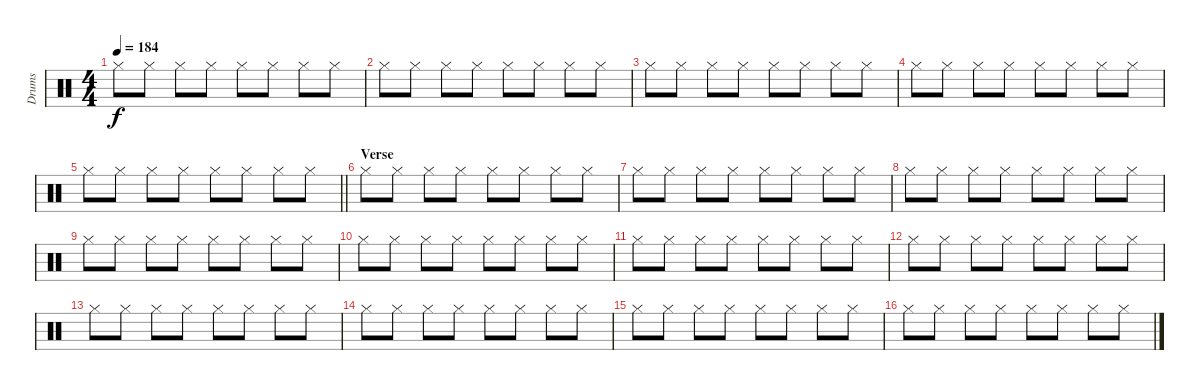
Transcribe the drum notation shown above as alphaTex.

\track ("Drums" "Drums") {instrument percussion}
\staff {score}
\articulation defaults
\ts (4 4)
\tempo 184
\clef neutral
\ks c "Hi-Hat (closed)".8{dy f} "Hi-Hat (closed)".8 "Hi-Hat (closed)".8 "Hi-Hat (closed)".8 "Hi-Hat (closed)".8 "Hi-Hat (closed)".8 "Hi-Hat (closed)".8 "Hi-Hat (closed)".8
|
"Hi-Hat (closed)".8 "Hi-Hat (closed)".8 "Hi-Hat (closed)".8 "Hi-Hat (closed)".8 "Hi-Hat (closed)".8 "Hi-Hat (closed)".8 "Hi-Hat (closed)".8 "Hi-Hat (closed)".8 |
"Hi-Hat (closed)".8 "Hi-Hat (closed)".8 "Hi-Hat (closed)".8 "Hi-Hat (closed)".8 "Hi-Hat (closed)".8 "Hi-Hat (closed)".8 "Hi-Hat (closed)".8 "Hi-Hat (closed)".8 |
"Hi-Hat (closed)".8 "Hi-Hat (closed)".8 "Hi-Hat (closed)".8 "Hi-Hat (closed)".8 "Hi-Hat (closed)".8 "Hi-Hat (closed)".8 "Hi-Hat (closed)".8 "Hi-Hat (closed)".8 |
\barLineRight lightlight "Hi-Hat (closed)".8 "Hi-Hat (closed)".8 "Hi-Hat (closed)".8 "Hi-Hat (closed)".8 "Hi-Hat (closed)".8 "Hi-Hat (closed)".8 "Hi-Hat (closed)".8 "Hi-Hat (closed)".8
|
\section ("" "Verse")
"Hi-Hat (closed)".8 "Hi-Hat (closed)".8 "Hi-Hat (closed)".8 "Hi-Hat (closed)".8 "Hi-Hat (closed)".8 "Hi-Hat (closed)".8 "Hi-Hat (closed)".8 "Hi-Hat (closed)".8 |
"Hi-Hat (closed)".8 "Hi-Hat (closed)".8 "Hi-Hat (closed)".8 "Hi-Hat (closed)".8 "Hi-Hat (closed)".8 "Hi-Hat (closed)".8 "Hi-Hat (closed)".8 "Hi-Hat (closed)".8 |
"Hi-Hat (closed)".8 "Hi-Hat (closed)".8 "Hi-Hat (closed)".8 "Hi-Hat (closed)".8 "Hi-Hat (closed)".8 "Hi-Hat (closed)".8 "Hi-Hat (closed)".8 "Hi-Hat (closed)".8 |
"Hi-Hat (closed)".8 "Hi-Hat (closed)".8 "Hi-Hat (closed)".8 "Hi-Hat (closed)".8 "Hi-Hat (closed)".8 "Hi-Hat (closed)".8 "Hi-Hat (closed)".8 "Hi-Hat (closed)".8 |
"Hi-Hat (closed)".8 "Hi-Hat (closed)".8 "Hi-Hat (closed)".8 "Hi-Hat (closed)".8 "Hi-Hat (closed)".8 "Hi-Hat (closed)".8 "Hi-Hat (closed)".8 "Hi-Hat (closed)".8 |
"Hi-Hat (closed)".8 "Hi-Hat (closed)".8 "Hi-Hat (closed)".8 "Hi-Hat (closed)".8 "Hi-Hat (closed)".8 "Hi-Hat (closed)".8 "Hi-Hat (closed)".8 "Hi-Hat (closed)".8 |
"Hi-Hat (closed)".8 "Hi-Hat (closed)".8 "Hi-Hat (closed)".8 "Hi-Hat (closed)".8 "Hi-Hat (closed)".8 "Hi-Hat (closed)".8 "Hi-Hat (closed)".8 "Hi-Hat (closed)".8 |
"Hi-Hat (closed)".8 "Hi-Hat (closed)".8 "Hi-Hat (closed)".8 "Hi-Hat (closed)".8 "Hi-Hat (closed)".8 "Hi-Hat (closed)".8 "Hi-Hat (closed)".8 "Hi-Hat (closed)".8 |
"Hi-Hat (closed)".8 "Hi-Hat (closed)".8 "Hi-Hat (closed)".8 "Hi-Hat (closed)".8 "Hi-Hat (closed)".8 "Hi-Hat (closed)".8 "Hi-Hat (closed)".8 "Hi-Hat (closed)".8 |
"Hi-Hat (closed)".8 "Hi-Hat (closed)".8 "Hi-Hat (closed)".8 "Hi-Hat (closed)".8 "Hi-Hat (closed)".8 "Hi-Hat (closed)".8 "Hi-Hat (closed)".8 "Hi-Hat (closed)".8 |
"Hi-Hat (closed)".8 "Hi-Hat (closed)".8 "Hi-Hat (closed)".8 "Hi-Hat (closed)".8 "Hi-Hat (closed)".8 "Hi-Hat (closed)".8 "Hi-Hat (closed)".8 "Hi-Hat (closed)".8
